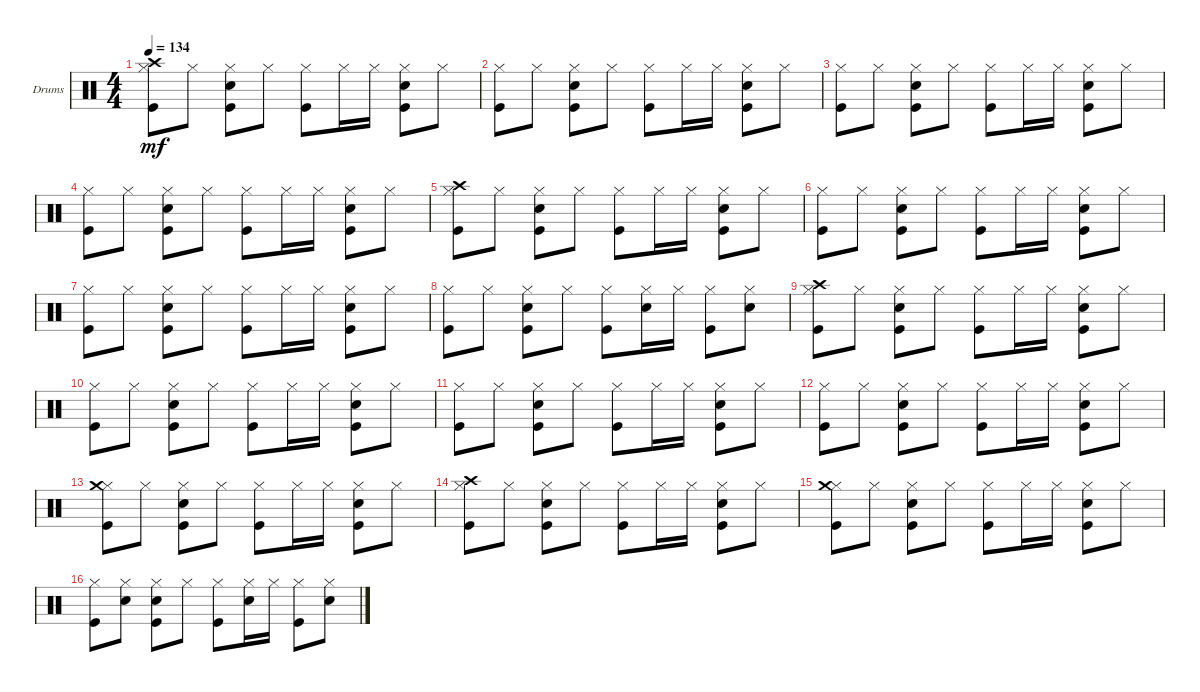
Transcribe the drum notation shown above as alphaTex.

\bracketExtendMode groupsimilarinstruments
\firstSystemTrackNameOrientation horizontal
\otherSystemsTrackNameOrientation horizontal
\track ("DRUMSET" "Drums") {instrument percussion}
\staff {score}
\articulation defaults
\ts (4 4)
\tempo 134
\clef neutral
\ks c
("Kick (hit)" "Hi-Hat (closed)" "Crash high (hit)").8{dy mf} "Hi-Hat (closed)".8 ("Kick (hit)" "Snare (hit) 2" "Hi-Hat (closed)").8 "Hi-Hat (closed)".8 ("Kick (hit)" "Hi-Hat (closed)").8 "Hi-Hat (closed)".16 "Hi-Hat (closed)".16 ("Kick (hit)" "Snare (hit) 2" "Hi-Hat (closed)").8 "Hi-Hat (closed)".8 |
("Kick (hit)" "Hi-Hat (closed)").8 "Hi-Hat (closed)".8 ("Kick (hit)" "Snare (hit) 2" "Hi-Hat (closed)").8 "Hi-Hat (closed)".8 ("Kick (hit)" "Hi-Hat (closed)").8 "Hi-Hat (closed)".16 "Hi-Hat (closed)".16 ("Kick (hit)" "Snare (hit) 2" "Hi-Hat (closed)").8 "Hi-Hat (closed)".8 |
("Kick (hit)" "Hi-Hat (closed)").8 "Hi-Hat (closed)".8 ("Kick (hit)" "Snare (hit) 2" "Hi-Hat (closed)").8 "Hi-Hat (closed)".8 ("Kick (hit)" "Hi-Hat (closed)").8 "Hi-Hat (closed)".16 "Hi-Hat (closed)".16 ("Kick (hit)" "Snare (hit) 2" "Hi-Hat (closed)").8 "Hi-Hat (closed)".8 |
("Kick (hit)" "Hi-Hat (closed)").8 "Hi-Hat (closed)".8 ("Kick (hit)" "Snare (hit) 2" "Hi-Hat (closed)").8 "Hi-Hat (closed)".8 ("Kick (hit)" "Hi-Hat (closed)").8 "Hi-Hat (closed)".16 "Hi-Hat (closed)".16 ("Kick (hit)" "Snare (hit) 2" "Hi-Hat (closed)").8 "Hi-Hat (closed)".8 |
("Kick (hit)" "Hi-Hat (closed)" "Crash high (hit)").8 "Hi-Hat (closed)".8 ("Kick (hit)" "Snare (hit) 2" "Hi-Hat (closed)").8 "Hi-Hat (closed)".8 ("Kick (hit)" "Hi-Hat (closed)").8 "Hi-Hat (closed)".16 "Hi-Hat (closed)".16 ("Kick (hit)" "Snare (hit) 2" "Hi-Hat (closed)").8 "Hi-Hat (closed)".8 |
("Kick (hit)" "Hi-Hat (closed)").8 "Hi-Hat (closed)".8 ("Kick (hit)" "Snare (hit) 2" "Hi-Hat (closed)").8 "Hi-Hat (closed)".8 ("Kick (hit)" "Hi-Hat (closed)").8 "Hi-Hat (closed)".16 "Hi-Hat (closed)".16 ("Kick (hit)" "Snare (hit) 2" "Hi-Hat (closed)").8 "Hi-Hat (closed)".8 |
("Kick (hit)" "Hi-Hat (closed)").8 "Hi-Hat (closed)".8 ("Kick (hit)" "Snare (hit) 2" "Hi-Hat (closed)").8 "Hi-Hat (closed)".8 ("Kick (hit)" "Hi-Hat (closed)").8 "Hi-Hat (closed)".16 "Hi-Hat (closed)".16 ("Kick (hit)" "Snare (hit) 2" "Hi-Hat (closed)").8 "Hi-Hat (closed)".8 |
("Kick (hit)" "Hi-Hat (closed)").8 "Hi-Hat (closed)".8 ("Kick (hit)" "Snare (hit) 2" "Hi-Hat (closed)").8 "Hi-Hat (closed)".8 ("Kick (hit)" "Hi-Hat (closed)").8 ("Snare (hit) 2" "Hi-Hat (closed)").16 "Hi-Hat (closed)".16 ("Kick (hit)" "Hi-Hat (closed)").8 ("Snare (hit) 2" "Hi-Hat (closed)").8 |
("Kick (hit)" "Hi-Hat (closed)" "Crash high (hit)").8 "Hi-Hat (closed)".8 ("Kick (hit)" "Snare (hit) 2" "Hi-Hat (closed)").8 "Hi-Hat (closed)".8 ("Kick (hit)" "Hi-Hat (closed)").8 "Hi-Hat (closed)".16 "Hi-Hat (closed)".16 ("Kick (hit)" "Snare (hit) 2" "Hi-Hat (closed)").8 "Hi-Hat (closed)".8 |
("Kick (hit)" "Hi-Hat (closed)").8 "Hi-Hat (closed)".8 ("Kick (hit)" "Snare (hit) 2" "Hi-Hat (closed)").8 "Hi-Hat (closed)".8 ("Kick (hit)" "Hi-Hat (closed)").8 "Hi-Hat (closed)".16 "Hi-Hat (closed)".16 ("Kick (hit)" "Snare (hit) 2" "Hi-Hat (closed)").8 "Hi-Hat (closed)".8 |
("Kick (hit)" "Hi-Hat (closed)").8 "Hi-Hat (closed)".8 ("Kick (hit)" "Snare (hit) 2" "Hi-Hat (closed)").8 "Hi-Hat (closed)".8 ("Kick (hit)" "Hi-Hat (closed)").8 "Hi-Hat (closed)".16 "Hi-Hat (closed)".16 ("Kick (hit)" "Snare (hit) 2" "Hi-Hat (closed)").8 "Hi-Hat (closed)".8 |
("Kick (hit)" "Hi-Hat (closed)").8 "Hi-Hat (closed)".8 ("Kick (hit)" "Snare (hit) 2" "Hi-Hat (closed)").8 "Hi-Hat (closed)".8 ("Kick (hit)" "Hi-Hat (closed)").8 "Hi-Hat (closed)".16 "Hi-Hat (closed)".16 ("Kick (hit)" "Snare (hit) 2" "Hi-Hat (closed)").8 "Hi-Hat (closed)".8 |
("Kick (hit)" "Hi-Hat (closed)" "Crash medium (hit)").8 "Hi-Hat (closed)".8 ("Kick (hit)" "Snare (hit) 2" "Hi-Hat (closed)").8 "Hi-Hat (closed)".8 ("Kick (hit)" "Hi-Hat (closed)").8 "Hi-Hat (closed)".16 "Hi-Hat (closed)".16 ("Kick (hit)" "Snare (hit) 2" "Hi-Hat (closed)").8 "Hi-Hat (closed)".8 |
("Kick (hit)" "Hi-Hat (closed)" "Crash high (hit)").8 "Hi-Hat (closed)".8 ("Kick (hit)" "Snare (hit) 2" "Hi-Hat (closed)").8 "Hi-Hat (closed)".8 ("Kick (hit)" "Hi-Hat (closed)").8 "Hi-Hat (closed)".16 "Hi-Hat (closed)".16 ("Kick (hit)" "Snare (hit) 2" "Hi-Hat (closed)").8 "Hi-Hat (closed)".8 |
("Kick (hit)" "Hi-Hat (closed)" "Crash medium (hit)").8 "Hi-Hat (closed)".8 ("Kick (hit)" "Snare (hit) 2" "Hi-Hat (closed)").8 "Hi-Hat (closed)".8 ("Kick (hit)" "Hi-Hat (closed)").8 "Hi-Hat (closed)".16 "Hi-Hat (closed)".16 ("Kick (hit)" "Snare (hit) 2" "Hi-Hat (closed)").8 "Hi-Hat (closed)".8 |
("Kick (hit)" "Hi-Hat (closed)").8 ("Snare (hit) 2" "Hi-Hat (closed)").8 ("Kick (hit)" "Snare (hit) 2" "Hi-Hat (closed)").8 "Hi-Hat (closed)".8 ("Kick (hit)" "Hi-Hat (closed)").8 ("Snare (hit) 2" "Hi-Hat (closed)").16 "Hi-Hat (closed)".16 ("Kick (hit)" "Hi-Hat (closed)").8 ("Snare (hit) 2" "Hi-Hat (closed)").8
